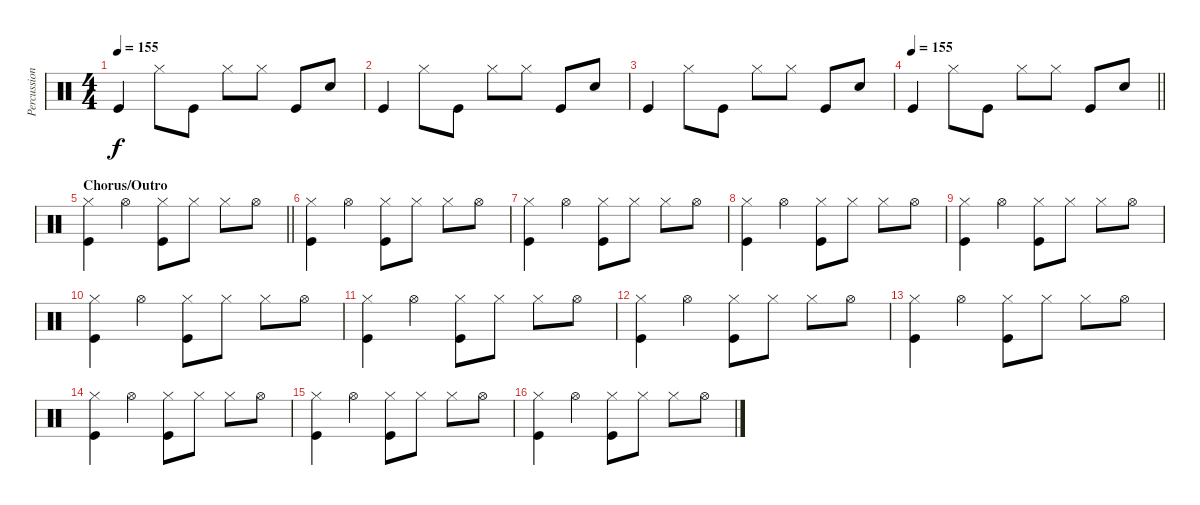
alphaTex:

\track ("Percussion" "Percussion") {instrument percussion}
\staff {score}
\articulation defaults
\ts (4 4)
\tempo 155
\clef neutral
\ks c "Kick (hit)".4{dy f} "Hi-Hat (closed)".8 "Kick (hit)".8 "Hi-Hat (closed)".8 "Hi-Hat (closed)".8 "Kick (hit)".8 "Electric Snare (hit)".8
|
"Kick (hit)".4 "Hi-Hat (closed)".8 "Kick (hit)".8 "Hi-Hat (closed)".8 "Hi-Hat (closed)".8 "Kick (hit)".8 "Electric Snare (hit)".8 |
"Kick (hit)".4 "Hi-Hat (closed)".8 "Kick (hit)".8 "Hi-Hat (closed)".8 "Hi-Hat (closed)".8 "Kick (hit)".8 "Electric Snare (hit)".8 |
\tempo 155
\barLineRight lightlight "Kick (hit)".4 "Hi-Hat (closed)".8 "Kick (hit)".8 "Hi-Hat (closed)".8 "Hi-Hat (closed)".8 "Kick (hit)".8 "Electric Snare (hit)".8
|
\section ("" "Chorus/Outro")
\barLineRight lightlight
("Kick (hit)" "Hi-Hat (closed)").4 "Hi-Hat (open)".4 ("Hi-Hat (closed)" "Kick (hit)").8 "Hi-Hat (closed)".8 "Hi-Hat (closed)".8 "Hi-Hat (open)".8 |
("Kick (hit)" "Hi-Hat (closed)").4 "Hi-Hat (open)".4 ("Hi-Hat (closed)" "Kick (hit)").8 "Hi-Hat (closed)".8 "Hi-Hat (closed)".8 "Hi-Hat (open)".8 |
("Kick (hit)" "Hi-Hat (closed)").4 "Hi-Hat (open)".4 ("Hi-Hat (closed)" "Kick (hit)").8 "Hi-Hat (closed)".8 "Hi-Hat (closed)".8 "Hi-Hat (open)".8 |
("Kick (hit)" "Hi-Hat (closed)").4 "Hi-Hat (open)".4 ("Hi-Hat (closed)" "Kick (hit)").8 "Hi-Hat (closed)".8 "Hi-Hat (closed)".8 "Hi-Hat (open)".8 |
("Kick (hit)" "Hi-Hat (closed)").4 "Hi-Hat (open)".4 ("Hi-Hat (closed)" "Kick (hit)").8 "Hi-Hat (closed)".8 "Hi-Hat (closed)".8 "Hi-Hat (open)".8 |
("Kick (hit)" "Hi-Hat (closed)").4 "Hi-Hat (open)".4 ("Hi-Hat (closed)" "Kick (hit)").8 "Hi-Hat (closed)".8 "Hi-Hat (closed)".8 "Hi-Hat (open)".8 |
("Kick (hit)" "Hi-Hat (closed)").4 "Hi-Hat (open)".4 ("Hi-Hat (closed)" "Kick (hit)").8 "Hi-Hat (closed)".8 "Hi-Hat (closed)".8 "Hi-Hat (open)".8 |
("Kick (hit)" "Hi-Hat (closed)").4 "Hi-Hat (open)".4 ("Hi-Hat (closed)" "Kick (hit)").8 "Hi-Hat (closed)".8 "Hi-Hat (closed)".8 "Hi-Hat (open)".8 |
("Kick (hit)" "Hi-Hat (closed)").4 "Hi-Hat (open)".4 ("Hi-Hat (closed)" "Kick (hit)").8 "Hi-Hat (closed)".8 "Hi-Hat (closed)".8 "Hi-Hat (open)".8 |
("Kick (hit)" "Hi-Hat (closed)").4 "Hi-Hat (open)".4 ("Hi-Hat (closed)" "Kick (hit)").8 "Hi-Hat (closed)".8 "Hi-Hat (closed)".8 "Hi-Hat (open)".8 |
("Kick (hit)" "Hi-Hat (closed)").4 "Hi-Hat (open)".4 ("Hi-Hat (closed)" "Kick (hit)").8 "Hi-Hat (closed)".8 "Hi-Hat (closed)".8 "Hi-Hat (open)".8 |
("Kick (hit)" "Hi-Hat (closed)").4 "Hi-Hat (open)".4 ("Hi-Hat (closed)" "Kick (hit)").8 "Hi-Hat (closed)".8 "Hi-Hat (closed)".8 "Hi-Hat (open)".8
